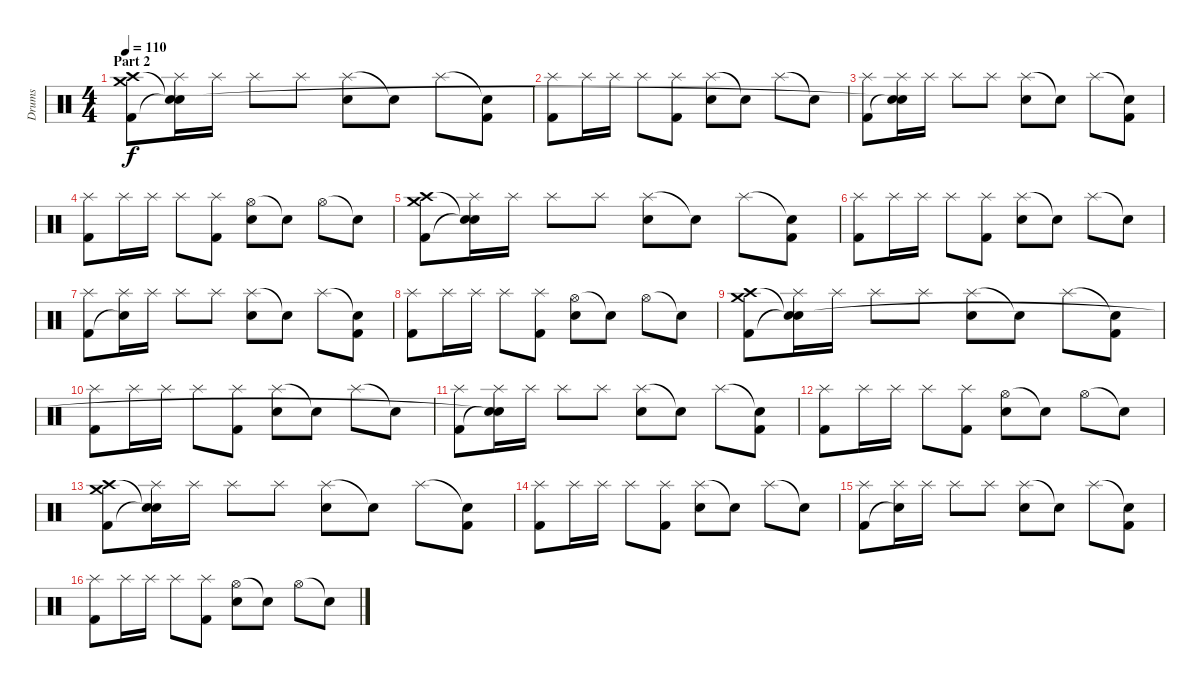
\track ("Drums" "Drums") {instrument percussion}
\staff {score}
\articulation defaults
\ts (4 4)
\section ("" "Part 2")
\tempo 110
\clef neutral
\ks c
("Crash medium (hit)" "Crash high (hit)" "Kick (hit) 2").8{dy f} ("Splash (hit)" "Snare (hit)"{t} "Snare (hit)"{t}).16 "Splash (hit)".16 "Splash (hit)".8 "Splash (hit)".8 ("Splash (hit)" "Snare (hit) 2").8 "Snare (hit)"{t}.8 "Splash (hit)".8 ("Snare (hit)"{t} "Kick (hit) 2").8 |
("Splash (hit)" "Kick (hit) 2").8 "Splash (hit)".16 "Splash (hit)".16 "Splash (hit)".8 ("Splash (hit)" "Kick (hit) 2").8 ("Splash (hit)" "Snare (hit) 2").8 "Snare (hit)"{t}.8 "Splash (hit)".8 "Snare (hit)"{t}.8 |
("Splash (hit)" "Kick (hit) 2").8 ("Splash (hit)" "Snare (hit)"{t} "Snare (hit)"{t}).16 "Splash (hit)".16 "Splash (hit)".8 "Splash (hit)".8 ("Splash (hit)" "Snare (hit) 2").8 "Snare (hit)"{t}.8 "Splash (hit)".8 ("Snare (hit)"{t} "Kick (hit) 2").8 |
("Splash (hit)" "Kick (hit) 2").8 "Splash (hit)".16 "Splash (hit)".16 "Splash (hit)".8 ("Splash (hit)" "Kick (hit) 2").8 ("Hi-Hat (open)" "Snare (hit) 2").8 "Snare (hit)"{t}.8 "Hi-Hat (open)".8 "Snare (hit)"{t}.8 |
("Crash medium (hit)" "Crash high (hit)" "Kick (hit) 2").8 ("Splash (hit)" "Snare (hit)"{t} "Snare (hit)"{t}).16 "Splash (hit)".16 "Splash (hit)".8 "Splash (hit)".8 ("Splash (hit)" "Snare (hit) 2").8 "Snare (hit)"{t}.8 "Splash (hit)".8 ("Snare (hit)"{t} "Kick (hit) 2").8 |
("Splash (hit)" "Kick (hit) 2").8 "Splash (hit)".16 "Splash (hit)".16 "Splash (hit)".8 ("Splash (hit)" "Kick (hit) 2").8 ("Splash (hit)" "Snare (hit) 2").8 "Snare (hit)"{t}.8 "Splash (hit)".8 "Snare (hit)"{t}.8 |
("Splash (hit)" "Kick (hit) 2").8 ("Splash (hit)" "Snare (hit)"{t}).16 "Splash (hit)".16 "Splash (hit)".8 "Splash (hit)".8 ("Splash (hit)" "Snare (hit) 2").8 "Snare (hit)"{t}.8 "Splash (hit)".8 ("Snare (hit)"{t} "Kick (hit) 2").8 |
("Splash (hit)" "Kick (hit) 2").8 "Splash (hit)".16 "Splash (hit)".16 "Splash (hit)".8 ("Splash (hit)" "Kick (hit) 2").8 ("Hi-Hat (open)" "Snare (hit) 2").8 "Snare (hit)"{t}.8 "Hi-Hat (open)".8 "Snare (hit)"{t}.8 |
("Crash medium (hit)" "Crash high (hit)" "Kick (hit) 2").8 ("Splash (hit)" "Snare (hit)"{t} "Snare (hit)"{t}).16 "Splash (hit)".16 "Splash (hit)".8 "Splash (hit)".8 ("Splash (hit)" "Snare (hit) 2").8 "Snare (hit)"{t}.8 "Splash (hit)".8 ("Snare (hit)"{t} "Kick (hit) 2").8 |
("Splash (hit)" "Kick (hit) 2").8 "Splash (hit)".16 "Splash (hit)".16 "Splash (hit)".8 ("Splash (hit)" "Kick (hit) 2").8 ("Splash (hit)" "Snare (hit) 2").8 "Snare (hit)"{t}.8 "Splash (hit)".8 "Snare (hit)"{t}.8 |
("Splash (hit)" "Kick (hit) 2").8 ("Splash (hit)" "Snare (hit)"{t} "Snare (hit)"{t}).16 "Splash (hit)".16 "Splash (hit)".8 "Splash (hit)".8 ("Splash (hit)" "Snare (hit) 2").8 "Snare (hit)"{t}.8 "Splash (hit)".8 ("Snare (hit)"{t} "Kick (hit) 2").8 |
("Splash (hit)" "Kick (hit) 2").8 "Splash (hit)".16 "Splash (hit)".16 "Splash (hit)".8 ("Splash (hit)" "Kick (hit) 2").8 ("Hi-Hat (open)" "Snare (hit) 2").8 "Snare (hit)"{t}.8 "Hi-Hat (open)".8 "Snare (hit)"{t}.8 |
("Crash medium (hit)" "Crash high (hit)" "Kick (hit) 2").8 ("Splash (hit)" "Snare (hit)"{t} "Snare (hit)"{t}).16 "Splash (hit)".16 "Splash (hit)".8 "Splash (hit)".8 ("Splash (hit)" "Snare (hit) 2").8 "Snare (hit)"{t}.8 "Splash (hit)".8 ("Snare (hit)"{t} "Kick (hit) 2").8 |
("Splash (hit)" "Kick (hit) 2").8 "Splash (hit)".16 "Splash (hit)".16 "Splash (hit)".8 ("Splash (hit)" "Kick (hit) 2").8 ("Splash (hit)" "Snare (hit) 2").8 "Snare (hit)"{t}.8 "Splash (hit)".8 "Snare (hit)"{t}.8 |
("Splash (hit)" "Kick (hit) 2").8 ("Splash (hit)" "Snare (hit)"{t}).16 "Splash (hit)".16 "Splash (hit)".8 "Splash (hit)".8 ("Splash (hit)" "Snare (hit) 2").8 "Snare (hit)"{t}.8 "Splash (hit)".8 ("Snare (hit)"{t} "Kick (hit) 2").8 |
("Splash (hit)" "Kick (hit) 2").8 "Splash (hit)".16 "Splash (hit)".16 "Splash (hit)".8 ("Splash (hit)" "Kick (hit) 2").8 ("Hi-Hat (open)" "Snare (hit) 2").8 "Snare (hit)"{t}.8 "Hi-Hat (open)".8 "Snare (hit)"{t}.8
